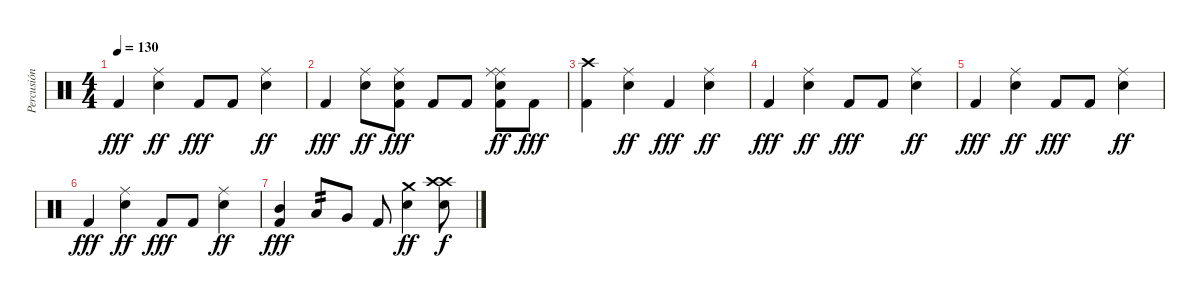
\track ("Percusión" "Percusión") {instrument percussion}
\staff {score}
\articulation defaults
\ts (4 4)
\tempo 130
\clef neutral
\ks c "Kick (hit) 2".4{dy fff}
("Snare (hit) 2" "Ride (middle)").4{dy ff} "Kick (hit) 2".8{dy fff} "Kick (hit) 2".8 ("Snare (hit) 2" "Ride (middle)").4{dy ff} |
"Kick (hit) 2".4{dy fff} ("Snare (hit) 2" "Ride (middle)").8{dy ff} ("Kick (hit) 2" "Ride (middle)" "Snare (hit) 2").8{dy fff} "Kick (hit) 2".8 "Kick (hit) 2".8 ("Kick (hit) 2" "Ride (middle)" "Snare (hit) 2" "Ride (middle)").8{dy ff} "Kick (hit) 2".8{dy fff} |
("Kick (hit) 2" "Crash high (hit)").4 ("Snare (hit) 2" "Ride (middle)").4{dy ff} "Kick (hit) 2".4{dy fff} ("Snare (hit) 2" "Ride (middle)").4{dy ff} |
"Kick (hit) 2".4{dy fff} ("Snare (hit) 2" "Ride (middle)").4{dy ff} "Kick (hit) 2".8{dy fff} "Kick (hit) 2".8 ("Snare (hit) 2" "Ride (middle)").4{dy ff} |
"Kick (hit) 2".4{dy fff} ("Snare (hit) 2" "Ride (middle)").4{dy ff} "Kick (hit) 2".8{dy fff} "Kick (hit) 2".8 ("Snare (hit) 2" "Ride (middle)").4{dy ff} |
"Kick (hit) 2".4{dy fff} ("Snare (hit) 2" "Ride (middle)").4{dy ff} "Kick (hit) 2".8{dy fff} "Kick (hit) 2".8 ("Snare (hit) 2" "Ride (middle)").4{dy ff} |
("Kick (hit) 2" "Mid Tom (hit)").4{dy fff} "Low Tom (hit)".8{tp 2} "Very Low Tom (hit)".8 "Kick (hit) 2".8 ("Snare (hit) 2" "Crash medium (hit)").4{dy ff} ("Crash high (hit)" "Snare (hit) 2" "Crash high (hit)").8{dy f}
